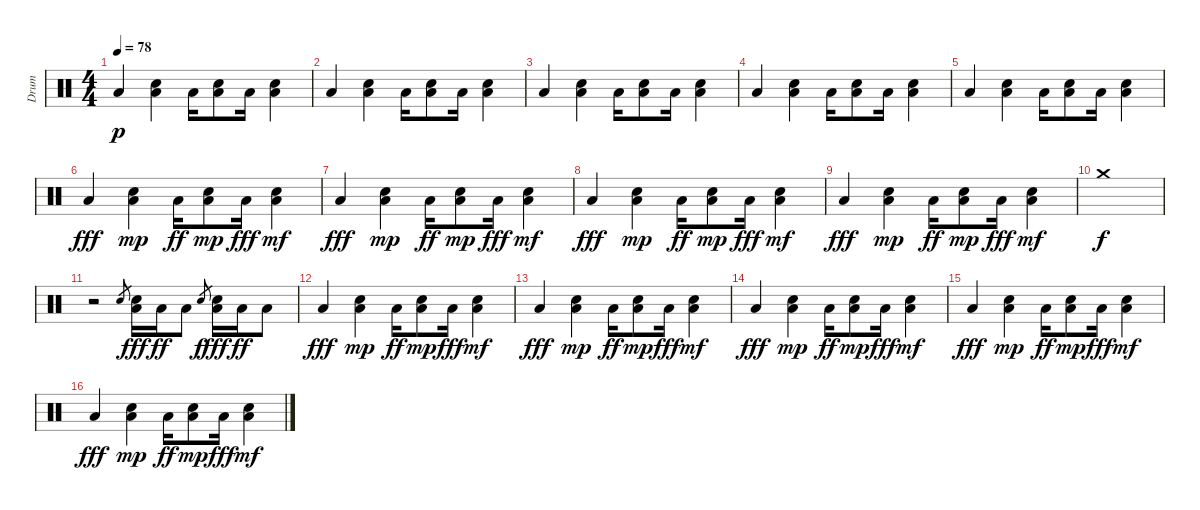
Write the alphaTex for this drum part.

\track ("Drum" "Drum") {instrument percussion}
\staff {score}
\articulation defaults
\ts (4 4)
\tempo 78
\clef neutral
\ks c "Low Floor Tom (hit)".4{dy p}
("Electric Snare (hit)" "Low Floor Tom (hit)").4 "Low Floor Tom (hit)".16 ("Electric Snare (hit)" "Low Floor Tom (hit)").8 "Low Floor Tom (hit)".16 ("Electric Snare (hit)" "Low Floor Tom (hit)").4 |
"Low Floor Tom (hit)".4 ("Electric Snare (hit)" "Low Floor Tom (hit)").4 "Low Floor Tom (hit)".16 ("Electric Snare (hit)" "Low Floor Tom (hit)").8 "Low Floor Tom (hit)".16 ("Electric Snare (hit)" "Low Floor Tom (hit)").4 |
"Low Floor Tom (hit)".4 ("Electric Snare (hit)" "Low Floor Tom (hit)").4 "Low Floor Tom (hit)".16 ("Electric Snare (hit)" "Low Floor Tom (hit)").8 "Low Floor Tom (hit)".16 ("Electric Snare (hit)" "Low Floor Tom (hit)").4 |
"Low Floor Tom (hit)".4 ("Electric Snare (hit)" "Low Floor Tom (hit)").4 "Low Floor Tom (hit)".16 ("Electric Snare (hit)" "Low Floor Tom (hit)").8 "Low Floor Tom (hit)".16 ("Electric Snare (hit)" "Low Floor Tom (hit)").4 |
"Low Floor Tom (hit)".4 ("Electric Snare (hit)" "Low Floor Tom (hit)").4 "Low Floor Tom (hit)".16 ("Electric Snare (hit)" "Low Floor Tom (hit)").8 "Low Floor Tom (hit)".16 ("Electric Snare (hit)" "Low Floor Tom (hit)").4 |
"Low Floor Tom (hit)".4{dy fff} ("Electric Snare (hit)" "Low Floor Tom (hit)").4{dy mp} "Low Floor Tom (hit)".16{dy ff} ("Electric Snare (hit)" "Low Floor Tom (hit)").8{dy mp} "Low Floor Tom (hit)".16{dy fff} ("Electric Snare (hit)" "Low Floor Tom (hit)").4{dy mf} |
"Low Floor Tom (hit)".4{dy fff} ("Electric Snare (hit)" "Low Floor Tom (hit)").4{dy mp} "Low Floor Tom (hit)".16{dy ff} ("Electric Snare (hit)" "Low Floor Tom (hit)").8{dy mp} "Low Floor Tom (hit)".16{dy fff} ("Electric Snare (hit)" "Low Floor Tom (hit)").4{dy mf} |
"Low Floor Tom (hit)".4{dy fff} ("Electric Snare (hit)" "Low Floor Tom (hit)").4{dy mp} "Low Floor Tom (hit)".16{dy ff} ("Electric Snare (hit)" "Low Floor Tom (hit)").8{dy mp} "Low Floor Tom (hit)".16{dy fff} ("Electric Snare (hit)" "Low Floor Tom (hit)").4{dy mf} |
"Low Floor Tom (hit)".4{dy fff} ("Electric Snare (hit)" "Low Floor Tom (hit)").4{dy mp} "Low Floor Tom (hit)".16{dy ff} ("Electric Snare (hit)" "Low Floor Tom (hit)").8{dy mp} "Low Floor Tom (hit)".16{dy fff} ("Electric Snare (hit)" "Low Floor Tom (hit)").4{dy mf} |
"Crash medium (hit)".1{dy f} |
r.2 "Electric Snare (hit)".8{gr} ("Electric Snare (hit)" "Low Floor Tom (hit)").16{dy fff} "Low Floor Tom (hit)".16{dy ff} "Low Floor Tom (hit)".8 "Electric Snare (hit)".8{gr dy f} ("Electric Snare (hit)" "Low Floor Tom (hit)").16{dy fff} "Low Floor Tom (hit)".16{dy ff} "Low Floor Tom (hit)".8 |
"Low Floor Tom (hit)".4{dy fff} ("Electric Snare (hit)" "Low Floor Tom (hit)").4{dy mp} "Low Floor Tom (hit)".16{dy ff} ("Electric Snare (hit)" "Low Floor Tom (hit)").8{dy mp} "Low Floor Tom (hit)".16{dy fff} ("Electric Snare (hit)" "Low Floor Tom (hit)").4{dy mf} |
"Low Floor Tom (hit)".4{dy fff} ("Electric Snare (hit)" "Low Floor Tom (hit)").4{dy mp} "Low Floor Tom (hit)".16{dy ff} ("Electric Snare (hit)" "Low Floor Tom (hit)").8{dy mp} "Low Floor Tom (hit)".16{dy fff} ("Electric Snare (hit)" "Low Floor Tom (hit)").4{dy mf} |
"Low Floor Tom (hit)".4{dy fff} ("Electric Snare (hit)" "Low Floor Tom (hit)").4{dy mp} "Low Floor Tom (hit)".16{dy ff} ("Electric Snare (hit)" "Low Floor Tom (hit)").8{dy mp} "Low Floor Tom (hit)".16{dy fff} ("Electric Snare (hit)" "Low Floor Tom (hit)").4{dy mf} |
"Low Floor Tom (hit)".4{dy fff} ("Electric Snare (hit)" "Low Floor Tom (hit)").4{dy mp} "Low Floor Tom (hit)".16{dy ff} ("Electric Snare (hit)" "Low Floor Tom (hit)").8{dy mp} "Low Floor Tom (hit)".16{dy fff} ("Electric Snare (hit)" "Low Floor Tom (hit)").4{dy mf} |
"Low Floor Tom (hit)".4{dy fff} ("Electric Snare (hit)" "Low Floor Tom (hit)").4{dy mp} "Low Floor Tom (hit)".16{dy ff} ("Electric Snare (hit)" "Low Floor Tom (hit)").8{dy mp} "Low Floor Tom (hit)".16{dy fff} ("Electric Snare (hit)" "Low Floor Tom (hit)").4{dy mf}
